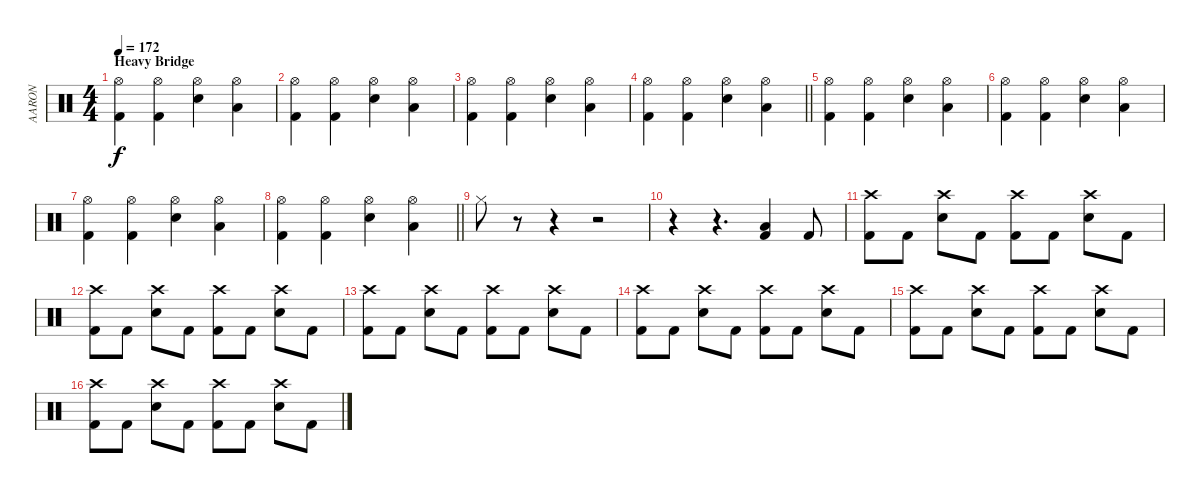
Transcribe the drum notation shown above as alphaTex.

\track ("AARON" "AARON") {instrument percussion}
\staff {score}
\articulation defaults
\ts (4 4)
\section ("" "Heavy Bridge")
\tempo 172
\clef neutral
\ks c
("Hi-Hat (open)" "Kick (hit) 2").4{dy f} ("Hi-Hat (open)" "Kick (hit) 2").4 ("Hi-Hat (open)" "Electric Snare (hit)").4 ("Hi-Hat (open)" "Low Tom (hit)").4 |
("Hi-Hat (open)" "Kick (hit) 2").4 ("Hi-Hat (open)" "Kick (hit) 2").4 ("Hi-Hat (open)" "Electric Snare (hit)").4 ("Hi-Hat (open)" "Low Tom (hit)").4 |
("Hi-Hat (open)" "Kick (hit) 2").4 ("Hi-Hat (open)" "Kick (hit) 2").4 ("Hi-Hat (open)" "Electric Snare (hit)").4 ("Hi-Hat (open)" "Low Tom (hit)").4 |
\barLineRight lightlight
("Hi-Hat (open)" "Kick (hit) 2").4 ("Hi-Hat (open)" "Kick (hit) 2").4 ("Hi-Hat (open)" "Electric Snare (hit)").4 ("Hi-Hat (open)" "Low Tom (hit)").4 |
("Hi-Hat (open)" "Kick (hit) 2").4 ("Hi-Hat (open)" "Kick (hit) 2").4 ("Hi-Hat (open)" "Electric Snare (hit)").4 ("Hi-Hat (open)" "Low Tom (hit)").4 |
("Hi-Hat (open)" "Kick (hit) 2").4 ("Hi-Hat (open)" "Kick (hit) 2").4 ("Hi-Hat (open)" "Electric Snare (hit)").4 ("Hi-Hat (open)" "Low Tom (hit)").4 |
("Hi-Hat (open)" "Kick (hit) 2").4 ("Hi-Hat (open)" "Kick (hit) 2").4 ("Hi-Hat (open)" "Electric Snare (hit)").4 ("Hi-Hat (open)" "Low Tom (hit)").4 |
\barLineRight lightlight
("Hi-Hat (open)" "Kick (hit) 2").4 ("Hi-Hat (open)" "Kick (hit) 2").4 ("Hi-Hat (open)" "Electric Snare (hit)").4 ("Hi-Hat (open)" "Low Tom (hit)").4 |
"Hi-Hat (closed)".8 r.8 r.4 r.2 |
r.4 r.4{d} ("Low Tom (hit)" "Kick (hit) 2").4 "Kick (hit) 2".8 |
("Crash high (hit)" "Kick (hit) 2").8 "Kick (hit) 2".8 ("Crash high (hit)" "Electric Snare (hit)").8 "Kick (hit) 2".8 ("Crash high (hit)" "Kick (hit) 2").8 "Kick (hit) 2".8 ("Crash high (hit)" "Electric Snare (hit)").8 "Kick (hit) 2".8 |
("Crash high (hit)" "Kick (hit) 2").8 "Kick (hit) 2".8 ("Crash high (hit)" "Electric Snare (hit)").8 "Kick (hit) 2".8 ("Crash high (hit)" "Kick (hit) 2").8 "Kick (hit) 2".8 ("Crash high (hit)" "Electric Snare (hit)").8 "Kick (hit) 2".8 |
("Crash high (hit)" "Kick (hit) 2").8 "Kick (hit) 2".8 ("Crash high (hit)" "Electric Snare (hit)").8 "Kick (hit) 2".8 ("Crash high (hit)" "Kick (hit) 2").8 "Kick (hit) 2".8 ("Crash high (hit)" "Electric Snare (hit)").8 "Kick (hit) 2".8 |
("Crash high (hit)" "Kick (hit) 2").8 "Kick (hit) 2".8 ("Crash high (hit)" "Electric Snare (hit)").8 "Kick (hit) 2".8 ("Crash high (hit)" "Kick (hit) 2").8 "Kick (hit) 2".8 ("Crash high (hit)" "Electric Snare (hit)").8 "Kick (hit) 2".8 |
("Crash high (hit)" "Kick (hit) 2").8 "Kick (hit) 2".8 ("Crash high (hit)" "Electric Snare (hit)").8 "Kick (hit) 2".8 ("Crash high (hit)" "Kick (hit) 2").8 "Kick (hit) 2".8 ("Crash high (hit)" "Electric Snare (hit)").8 "Kick (hit) 2".8 |
("Crash high (hit)" "Kick (hit) 2").8 "Kick (hit) 2".8 ("Crash high (hit)" "Electric Snare (hit)").8 "Kick (hit) 2".8 ("Crash high (hit)" "Kick (hit) 2").8 "Kick (hit) 2".8 ("Crash high (hit)" "Electric Snare (hit)").8 "Kick (hit) 2".8
